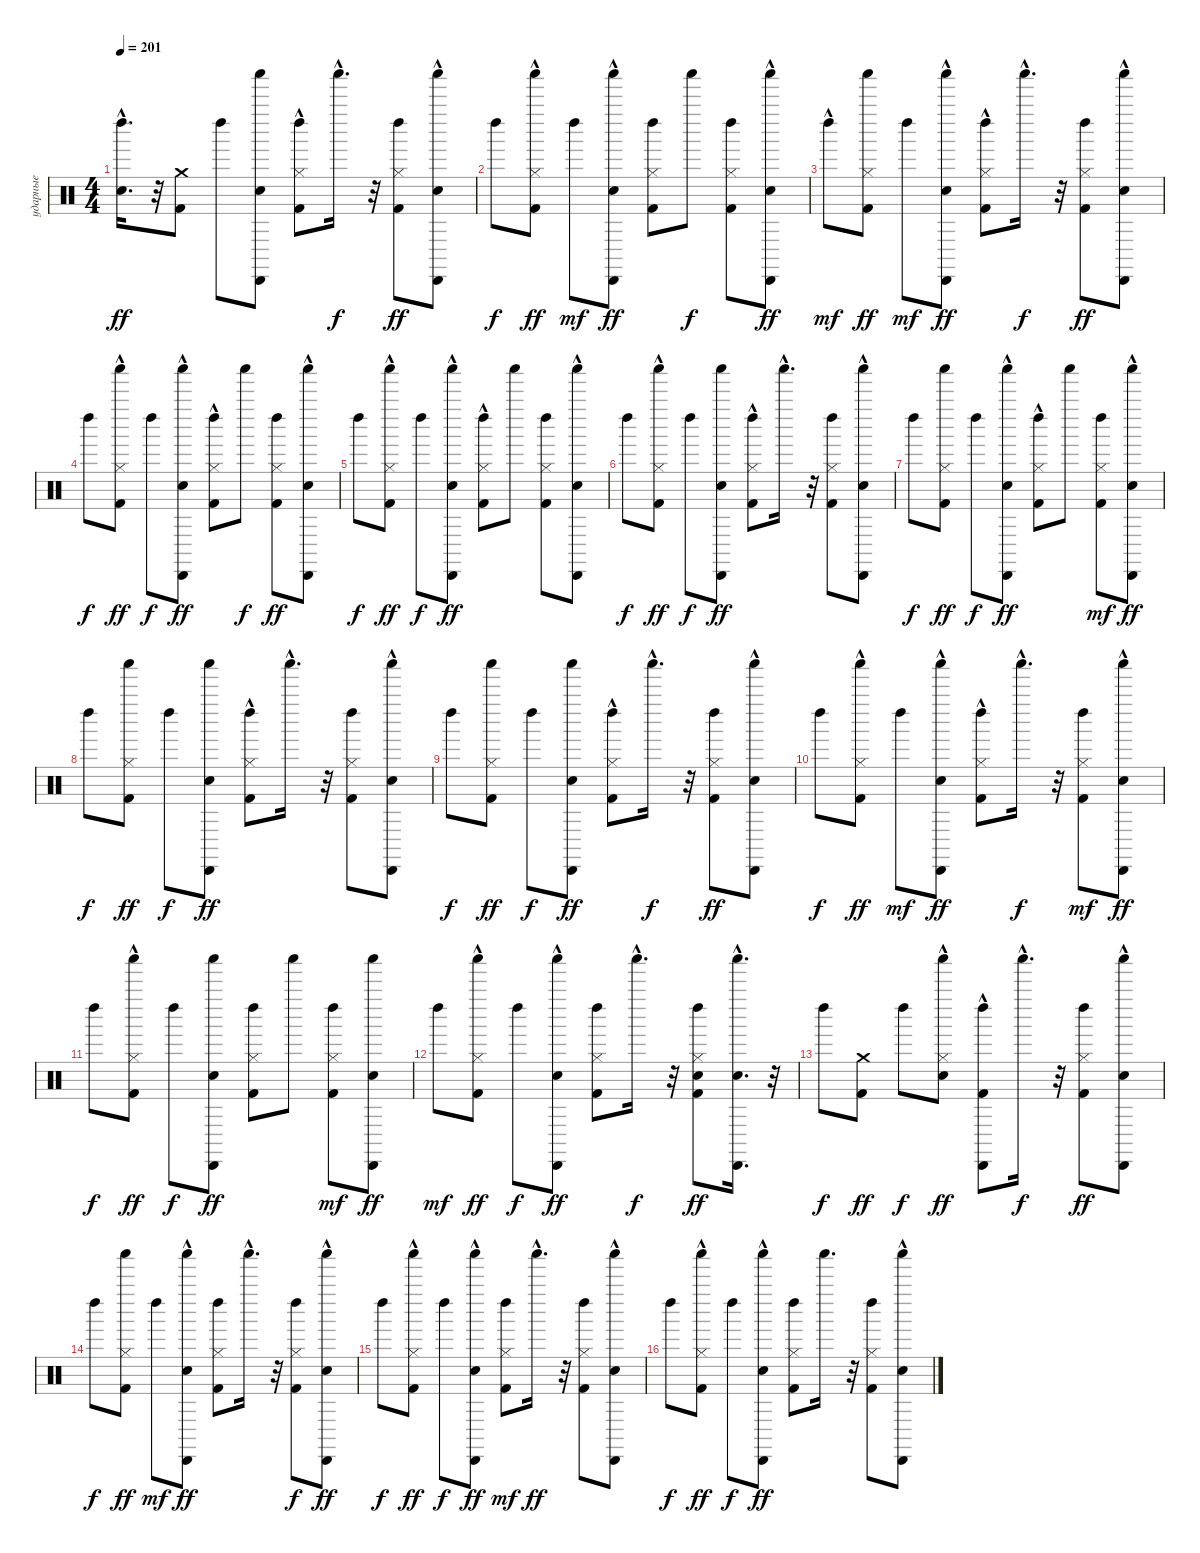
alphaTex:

\track ("ударные" "ударные") {instrument percussion}
\staff {score}
\articulation defaults
\ts (4 4)
\tempo 201
\clef neutral
\ks c
("Electric Snare (hit)" "Left Maraca (hit)"{hac}).16{d dy ff} r.32 ("Kick (hit) 2" "Crash medium (hit)").8 "Left Maraca (hit)".8 ("Electric Snare (hit)" "Cabasa (hit)" "Shaker (hit)").8 ("Kick (hit) 2" "Hi-Hat (closed)"{hac} "Left Maraca (hit)").8 "Shaker (hit)"{hac}.16{d dy f} r.32 ("Kick (hit) 2" "Hi-Hat (closed)" "Left Maraca (hit)").8{dy ff} ("Electric Snare (hit)" "Cabasa (hit)" "Shaker (hit)"{hac}).8 |
"Left Maraca (hit)".8{dy f} ("Kick (hit) 2" "Hi-Hat (closed)" "Shaker (hit)"{hac}).8{dy ff} "Left Maraca (hit)".8{dy mf} ("Electric Snare (hit)" "Cabasa (hit)"{hac} "Shaker (hit)").8{dy ff} ("Kick (hit) 2" "Hi-Hat (closed)" "Left Maraca (hit)").8 "Shaker (hit)".8{dy f} ("Kick (hit) 2" "Hi-Hat (closed)" "Left Maraca (hit)").8 ("Electric Snare (hit)" "Cabasa (hit)"{hac} "Shaker (hit)").8{dy ff} |
"Left Maraca (hit)"{hac}.8{dy mf} ("Kick (hit) 2" "Hi-Hat (closed)" "Shaker (hit)").8{dy ff} "Left Maraca (hit)".8{dy mf} ("Electric Snare (hit)" "Cabasa (hit)" "Shaker (hit)"{hac}).8{dy ff} ("Kick (hit) 2" "Hi-Hat (closed)"{hac} "Left Maraca (hit)").8 "Shaker (hit)"{hac}.16{d dy f} r.32 ("Kick (hit) 2" "Hi-Hat (closed)" "Left Maraca (hit)").8{dy ff} ("Electric Snare (hit)" "Cabasa (hit)" "Shaker (hit)"{hac}).8 |
"Left Maraca (hit)".8{dy f} ("Kick (hit) 2" "Hi-Hat (closed)" "Shaker (hit)"{hac}).8{dy ff} "Left Maraca (hit)".8{dy f} ("Electric Snare (hit)" "Cabasa (hit)"{hac} "Shaker (hit)").8{dy ff} ("Kick (hit) 2" "Hi-Hat (closed)"{hac} "Left Maraca (hit)").8 "Shaker (hit)".8{dy f} ("Kick (hit) 2" "Hi-Hat (closed)" "Left Maraca (hit)").8{dy ff} ("Electric Snare (hit)" "Cabasa (hit)"{hac} "Shaker (hit)"{hac}).8 |
"Left Maraca (hit)".8{dy f} ("Kick (hit) 2" "Hi-Hat (closed)" "Shaker (hit)"{hac}).8{dy ff} "Left Maraca (hit)".8{dy f} ("Electric Snare (hit)" "Cabasa (hit)" "Shaker (hit)"{hac}).8{dy ff} ("Kick (hit) 2" "Hi-Hat (closed)"{hac} "Left Maraca (hit)").8 "Shaker (hit)".8 ("Kick (hit) 2" "Hi-Hat (closed)" "Left Maraca (hit)").8 ("Electric Snare (hit)" "Cabasa (hit)" "Shaker (hit)"{hac}).8 |
"Left Maraca (hit)".8{dy f} ("Kick (hit) 2" "Hi-Hat (closed)" "Shaker (hit)"{hac}).8{dy ff} "Left Maraca (hit)".8{dy f} ("Electric Snare (hit)" "Cabasa (hit)" "Shaker (hit)").8{dy ff} ("Kick (hit) 2" "Hi-Hat (closed)"{hac} "Left Maraca (hit)").8 "Shaker (hit)"{hac}.16{d} r.32 ("Kick (hit) 2" "Hi-Hat (closed)" "Left Maraca (hit)").8 ("Electric Snare (hit)" "Cabasa (hit)" "Shaker (hit)"{hac}).8 |
"Left Maraca (hit)".8{dy f} ("Kick (hit) 2" "Hi-Hat (closed)" "Shaker (hit)").8{dy ff} "Left Maraca (hit)".8{dy f} ("Electric Snare (hit)" "Cabasa (hit)"{hac} "Shaker (hit)").8{dy ff} ("Kick (hit) 2" "Hi-Hat (closed)"{hac} "Left Maraca (hit)").8 "Shaker (hit)".8 ("Kick (hit) 2" "Hi-Hat (closed)" "Left Maraca (hit)").8{dy mf} ("Electric Snare (hit)" "Cabasa (hit)"{hac} "Shaker (hit)").8{dy ff} |
"Left Maraca (hit)".8{dy f} ("Kick (hit) 2" "Hi-Hat (closed)" "Shaker (hit)").8{dy ff} "Left Maraca (hit)".8{dy f} ("Electric Snare (hit)" "Cabasa (hit)" "Shaker (hit)").8{dy ff} ("Kick (hit) 2" "Hi-Hat (closed)"{hac} "Left Maraca (hit)").8 "Shaker (hit)"{hac}.16{d} r.32 ("Kick (hit) 2" "Hi-Hat (closed)" "Left Maraca (hit)").8 ("Electric Snare (hit)" "Cabasa (hit)" "Shaker (hit)"{hac}).8 |
"Left Maraca (hit)".8{dy f} ("Kick (hit) 2" "Hi-Hat (closed)" "Shaker (hit)").8{dy ff} "Left Maraca (hit)".8{dy f} ("Electric Snare (hit)" "Cabasa (hit)" "Shaker (hit)").8{dy ff} ("Kick (hit) 2" "Hi-Hat (closed)"{hac} "Left Maraca (hit)").8 "Shaker (hit)"{hac}.16{d dy f} r.32 ("Kick (hit) 2" "Hi-Hat (closed)" "Left Maraca (hit)").8{dy ff} ("Electric Snare (hit)" "Cabasa (hit)" "Shaker (hit)"{hac}).8 |
"Left Maraca (hit)".8{dy f} ("Kick (hit) 2" "Hi-Hat (closed)" "Shaker (hit)"{hac}).8{dy ff} "Left Maraca (hit)".8{dy mf} ("Electric Snare (hit)" "Cabasa (hit)" "Shaker (hit)"{hac}).8{dy ff} ("Kick (hit) 2" "Hi-Hat (closed)"{hac} "Left Maraca (hit)").8 "Shaker (hit)"{hac}.16{d dy f} r.32 ("Kick (hit) 2" "Hi-Hat (closed)" "Left Maraca (hit)").8{dy mf} ("Electric Snare (hit)" "Cabasa (hit)" "Shaker (hit)"{hac}).8{dy ff} |
"Left Maraca (hit)".8{dy f} ("Kick (hit) 2" "Hi-Hat (closed)" "Shaker (hit)"{hac}).8{dy ff} "Left Maraca (hit)".8{dy f} ("Electric Snare (hit)" "Cabasa (hit)" "Shaker (hit)").8{dy ff} ("Kick (hit) 2" "Hi-Hat (closed)" "Left Maraca (hit)").8 "Shaker (hit)".8 ("Kick (hit) 2" "Hi-Hat (closed)" "Left Maraca (hit)").8{dy mf} ("Electric Snare (hit)" "Cabasa (hit)" "Shaker (hit)").8{dy ff} |
"Left Maraca (hit)".8{dy mf} ("Kick (hit) 2" "Hi-Hat (closed)" "Shaker (hit)"{hac}).8{dy ff} "Left Maraca (hit)".8{dy f} ("Electric Snare (hit)" "Cabasa (hit)" "Shaker (hit)"{hac}).8{dy ff} ("Kick (hit) 2" "Hi-Hat (closed)" "Left Maraca (hit)").8 "Shaker (hit)"{hac}.16{d dy f} r.32 ("Kick (hit) 2" "Electric Snare (hit)" "Hi-Hat (closed)" "Left Maraca (hit)").8{dy ff} ("Electric Snare (hit)" "Cabasa (hit)"{hac} "Shaker (hit)"{hac}).16{d} r.32 |
"Left Maraca (hit)".8{dy f} ("Kick (hit) 2" "Crash medium (hit)").8{dy ff} "Left Maraca (hit)".8{dy f} ("Electric Snare (hit)" "Hi-Hat (closed)" "Shaker (hit)"{hac}).8{dy ff} ("Kick (hit) 2" "Cabasa (hit)"{hac} "Left Maraca (hit)").8 "Shaker (hit)"{hac}.16{d dy f} r.32 ("Kick (hit) 2" "Hi-Hat (closed)" "Left Maraca (hit)").8{dy ff} ("Electric Snare (hit)" "Cabasa (hit)"{hac} "Shaker (hit)"{hac}).8 |
"Left Maraca (hit)".8{dy f} ("Kick (hit) 2" "Hi-Hat (closed)" "Shaker (hit)").8{dy ff} "Left Maraca (hit)".8{dy mf} ("Electric Snare (hit)" "Cabasa (hit)"{hac} "Shaker (hit)"{hac}).8{dy ff} ("Kick (hit) 2" "Hi-Hat (closed)" "Left Maraca (hit)").8 "Shaker (hit)"{hac}.16{d} r.32 ("Kick (hit) 2" "Hi-Hat (closed)" "Left Maraca (hit)").8{dy f} ("Electric Snare (hit)" "Cabasa (hit)"{hac} "Shaker (hit)"{hac}).8{dy ff} |
"Left Maraca (hit)".8{dy f} ("Kick (hit) 2" "Hi-Hat (closed)" "Shaker (hit)"{hac}).8{dy ff} "Left Maraca (hit)".8{dy f} ("Electric Snare (hit)" "Cabasa (hit)"{hac} "Shaker (hit)"{hac}).8{dy ff} ("Kick (hit) 2" "Hi-Hat (closed)" "Left Maraca (hit)").8{dy mf} "Shaker (hit)"{hac}.16{d dy ff} r.32 ("Kick (hit) 2" "Hi-Hat (closed)" "Left Maraca (hit)").8 ("Electric Snare (hit)" "Cabasa (hit)" "Shaker (hit)"{hac}).8 |
"Left Maraca (hit)".8{dy f} ("Kick (hit) 2" "Hi-Hat (closed)" "Shaker (hit)"{hac}).8{dy ff} "Left Maraca (hit)".8{dy f} ("Electric Snare (hit)" "Cabasa (hit)" "Shaker (hit)"{hac}).8{dy ff} ("Kick (hit) 2" "Hi-Hat (closed)" "Left Maraca (hit)").8 "Shaker (hit)".16{d} r.32 ("Kick (hit) 2" "Hi-Hat (closed)" "Left Maraca (hit)").8 ("Electric Snare (hit)" "Cabasa (hit)" "Shaker (hit)"{hac}).8
